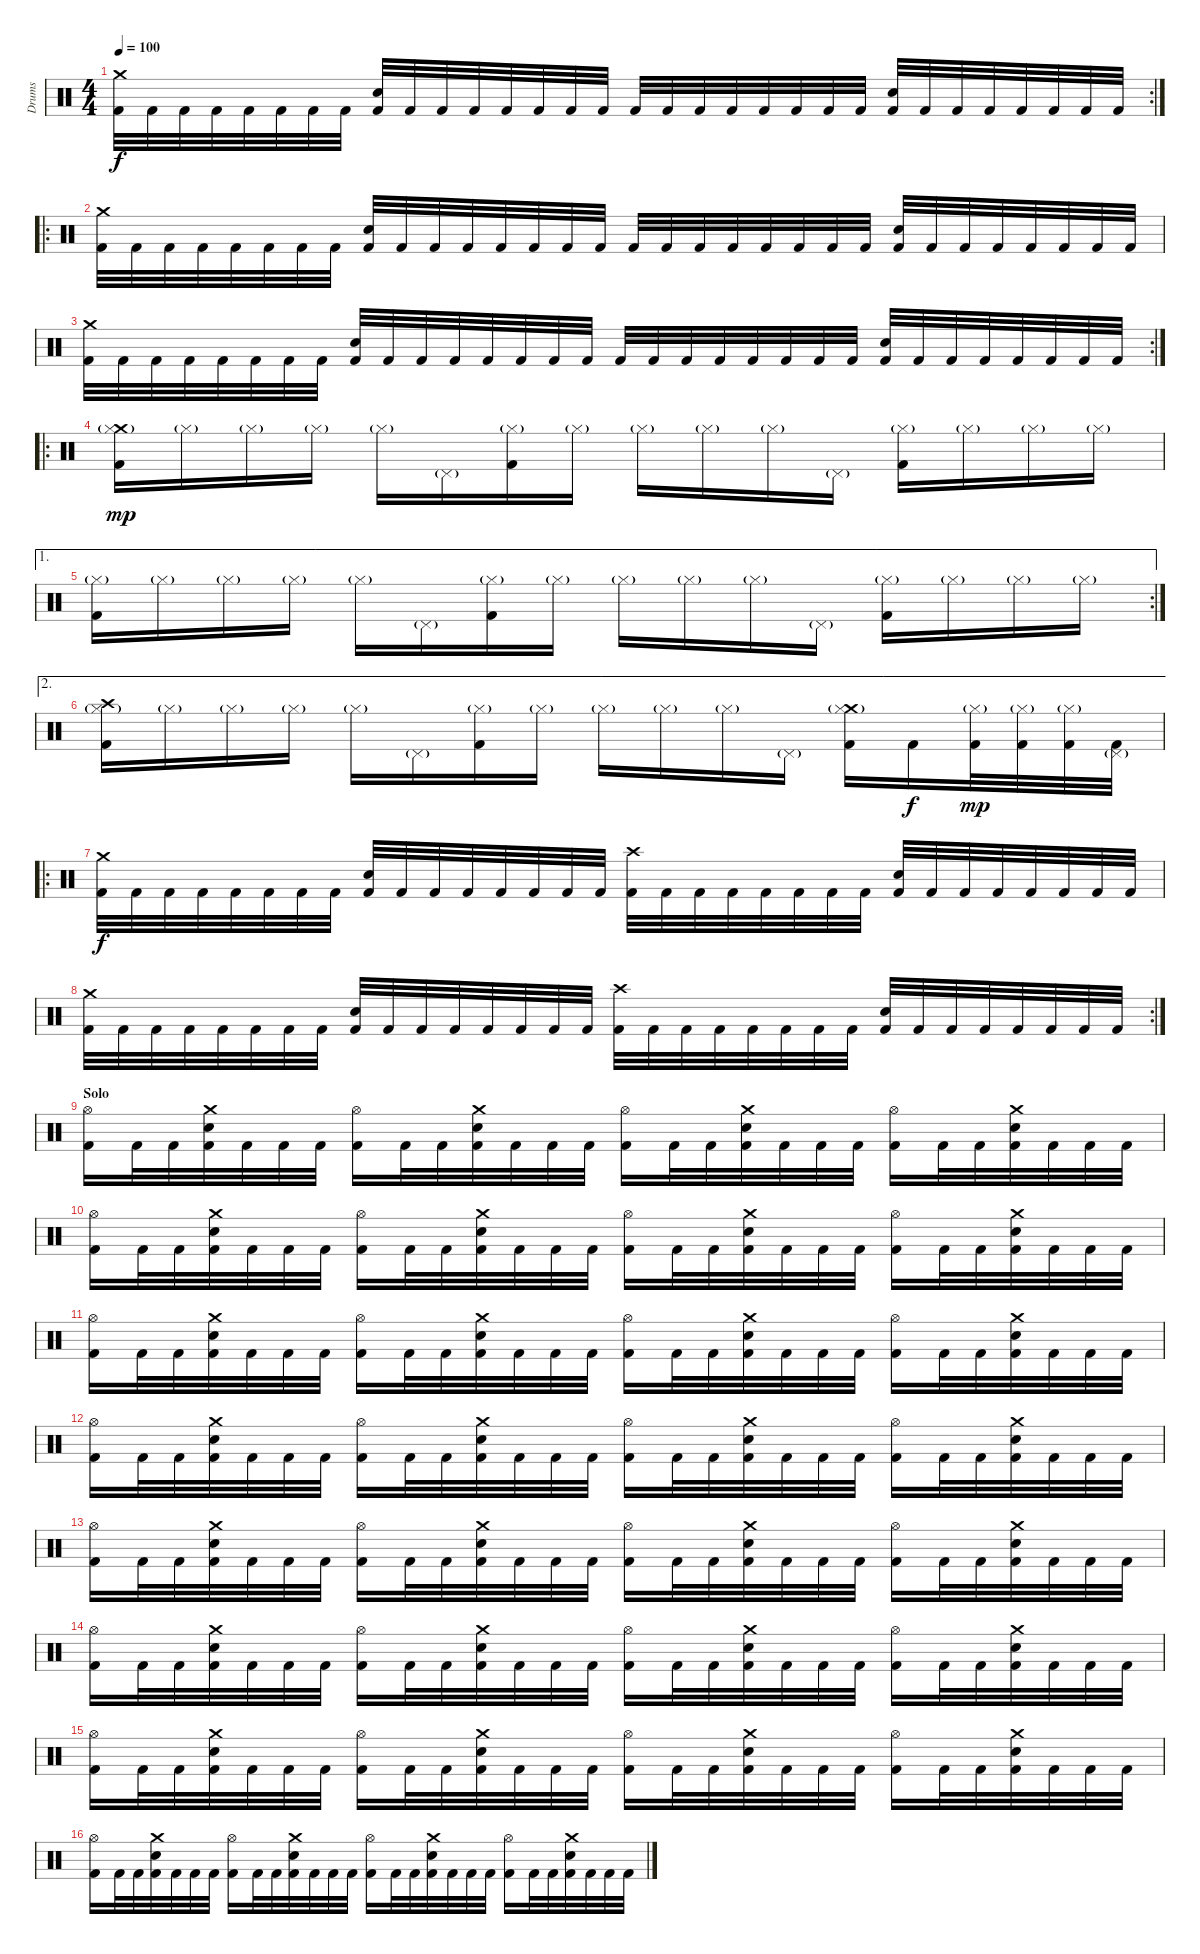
\track ("Drums" "Drums") {instrument percussion}
\staff {score}
\articulation defaults
\rc 2
\ts (4 4)
\tempo 100
\clef neutral
\ks c
("Crash medium (hit)" "Kick (hit) 2").32{dy f} "Kick (hit) 2".32 "Kick (hit) 2".32 "Kick (hit) 2".32 "Kick (hit) 2".32 "Kick (hit) 2".32 "Kick (hit) 2".32 "Kick (hit) 2".32 ("Snare (hit) 2" "Kick (hit) 2").32 "Kick (hit) 2".32 "Kick (hit) 2".32 "Kick (hit) 2".32 "Kick (hit) 2".32 "Kick (hit) 2".32 "Kick (hit) 2".32 "Kick (hit) 2".32 "Kick (hit) 2".32 "Kick (hit) 2".32 "Kick (hit) 2".32 "Kick (hit) 2".32 "Kick (hit) 2".32 "Kick (hit) 2".32 "Kick (hit) 2".32 "Kick (hit) 2".32 ("Snare (hit) 2" "Kick (hit) 2").32 "Kick (hit) 2".32 "Kick (hit) 2".32 "Kick (hit) 2".32 "Kick (hit) 2".32 "Kick (hit) 2".32 "Kick (hit) 2".32 "Kick (hit) 2".32 |
\ro
("Crash medium (hit)" "Kick (hit) 2").32 "Kick (hit) 2".32 "Kick (hit) 2".32 "Kick (hit) 2".32 "Kick (hit) 2".32 "Kick (hit) 2".32 "Kick (hit) 2".32 "Kick (hit) 2".32 ("Snare (hit) 2" "Kick (hit) 2").32 "Kick (hit) 2".32 "Kick (hit) 2".32 "Kick (hit) 2".32 "Kick (hit) 2".32 "Kick (hit) 2".32 "Kick (hit) 2".32 "Kick (hit) 2".32 "Kick (hit) 2".32 "Kick (hit) 2".32 "Kick (hit) 2".32 "Kick (hit) 2".32 "Kick (hit) 2".32 "Kick (hit) 2".32 "Kick (hit) 2".32 "Kick (hit) 2".32 ("Snare (hit) 2" "Kick (hit) 2").32 "Kick (hit) 2".32 "Kick (hit) 2".32 "Kick (hit) 2".32 "Kick (hit) 2".32 "Kick (hit) 2".32 "Kick (hit) 2".32 "Kick (hit) 2".32 |
\rc 2
("Crash medium (hit)" "Kick (hit) 2").32 "Kick (hit) 2".32 "Kick (hit) 2".32 "Kick (hit) 2".32 "Kick (hit) 2".32 "Kick (hit) 2".32 "Kick (hit) 2".32 "Kick (hit) 2".32 ("Snare (hit) 2" "Kick (hit) 2").32 "Kick (hit) 2".32 "Kick (hit) 2".32 "Kick (hit) 2".32 "Kick (hit) 2".32 "Kick (hit) 2".32 "Kick (hit) 2".32 "Kick (hit) 2".32 "Kick (hit) 2".32 "Kick (hit) 2".32 "Kick (hit) 2".32 "Kick (hit) 2".32 "Kick (hit) 2".32 "Kick (hit) 2".32 "Kick (hit) 2".32 "Kick (hit) 2".32 ("Snare (hit) 2" "Kick (hit) 2").32 "Kick (hit) 2".32 "Kick (hit) 2".32 "Kick (hit) 2".32 "Kick (hit) 2".32 "Kick (hit) 2".32 "Kick (hit) 2".32 "Kick (hit) 2".32 |
\ro
("Crash medium (hit)" "Hi-Hat (closed)"{g} "Kick (hit) 2").16{dy mp} "Hi-Hat (closed)"{g}.16 "Hi-Hat (closed)"{g}.16 "Hi-Hat (closed)"{g}.16 "Hi-Hat (closed)"{g}.16 "Pedal Hi-Hat (hit)"{g}.16 ("Hi-Hat (closed)"{g} "Kick (hit) 2").16 "Hi-Hat (closed)"{g}.16 "Hi-Hat (closed)"{g}.16 "Hi-Hat (closed)"{g}.16 "Hi-Hat (closed)"{g}.16 "Pedal Hi-Hat (hit)"{g}.16 ("Hi-Hat (closed)"{g} "Kick (hit) 2").16 "Hi-Hat (closed)"{g}.16 "Hi-Hat (closed)"{g}.16 "Hi-Hat (closed)"{g}.16 |
\ae 1
\rc 2
("Hi-Hat (closed)"{g} "Kick (hit) 2").16 "Hi-Hat (closed)"{g}.16 "Hi-Hat (closed)"{g}.16 "Hi-Hat (closed)"{g}.16 "Hi-Hat (closed)"{g}.16 "Pedal Hi-Hat (hit)"{g}.16 ("Hi-Hat (closed)"{g} "Kick (hit) 2").16 "Hi-Hat (closed)"{g}.16 "Hi-Hat (closed)"{g}.16 "Hi-Hat (closed)"{g}.16 "Hi-Hat (closed)"{g}.16 "Pedal Hi-Hat (hit)"{g}.16 ("Hi-Hat (closed)"{g} "Kick (hit) 2").16 "Hi-Hat (closed)"{g}.16 "Hi-Hat (closed)"{g}.16 "Hi-Hat (closed)"{g}.16 |
\ae 2
("Crash high (hit)" "Hi-Hat (closed)"{g} "Kick (hit) 2").16 "Hi-Hat (closed)"{g}.16 "Hi-Hat (closed)"{g}.16 "Hi-Hat (closed)"{g}.16 "Hi-Hat (closed)"{g}.16 "Pedal Hi-Hat (hit)"{g}.16 ("Hi-Hat (closed)"{g} "Kick (hit) 2").16 "Hi-Hat (closed)"{g}.16 "Hi-Hat (closed)"{g}.16 "Hi-Hat (closed)"{g}.16 "Hi-Hat (closed)"{g}.16 "Pedal Hi-Hat (hit)"{g}.16 ("Crash medium (hit)" "Hi-Hat (closed)"{g} "Kick (hit) 2").16 "Kick (hit) 2".16{dy f} ("Hi-Hat (closed)"{g} "Kick (hit) 2").32{dy mp} ("Hi-Hat (closed)"{g} "Kick (hit) 2").32 ("Hi-Hat (closed)"{g} "Kick (hit) 2").32 ("Pedal Hi-Hat (hit)"{g} "Kick (hit) 2").32 |
\ro
("Crash medium (hit)" "Kick (hit) 2").32{dy f} "Kick (hit) 2".32 "Kick (hit) 2".32 "Kick (hit) 2".32 "Kick (hit) 2".32 "Kick (hit) 2".32 "Kick (hit) 2".32 "Kick (hit) 2".32 ("Snare (hit) 2" "Kick (hit) 2").32 "Kick (hit) 2".32 "Kick (hit) 2".32 "Kick (hit) 2".32 "Kick (hit) 2".32 "Kick (hit) 2".32 "Kick (hit) 2".32 "Kick (hit) 2".32 ("Crash high (hit)" "Kick (hit) 2").32 "Kick (hit) 2".32 "Kick (hit) 2".32 "Kick (hit) 2".32 "Kick (hit) 2".32 "Kick (hit) 2".32 "Kick (hit) 2".32 "Kick (hit) 2".32 ("Snare (hit) 2" "Kick (hit) 2").32 "Kick (hit) 2".32 "Kick (hit) 2".32 "Kick (hit) 2".32 "Kick (hit) 2".32 "Kick (hit) 2".32 "Kick (hit) 2".32 "Kick (hit) 2".32 |
\rc 2
("Crash medium (hit)" "Kick (hit) 2").32 "Kick (hit) 2".32 "Kick (hit) 2".32 "Kick (hit) 2".32 "Kick (hit) 2".32 "Kick (hit) 2".32 "Kick (hit) 2".32 "Kick (hit) 2".32 ("Snare (hit) 2" "Kick (hit) 2").32 "Kick (hit) 2".32 "Kick (hit) 2".32 "Kick (hit) 2".32 "Kick (hit) 2".32 "Kick (hit) 2".32 "Kick (hit) 2".32 "Kick (hit) 2".32 ("Crash high (hit)" "Kick (hit) 2").32 "Kick (hit) 2".32 "Kick (hit) 2".32 "Kick (hit) 2".32 "Kick (hit) 2".32 "Kick (hit) 2".32 "Kick (hit) 2".32 "Kick (hit) 2".32 ("Snare (hit) 2" "Kick (hit) 2").32 "Kick (hit) 2".32 "Kick (hit) 2".32 "Kick (hit) 2".32 "Kick (hit) 2".32 "Kick (hit) 2".32 "Kick (hit) 2".32 "Kick (hit) 2".32 |
\section ("" "Solo")
("Hi-Hat (open)" "Kick (hit) 2").16 "Kick (hit) 2".32 "Kick (hit) 2".32 ("Crash medium (hit)" "Snare (hit) 2" "Kick (hit) 2").32 "Kick (hit) 2".32 "Kick (hit) 2".32 "Kick (hit) 2".32 ("Hi-Hat (open)" "Kick (hit) 2").16 "Kick (hit) 2".32 "Kick (hit) 2".32 ("Crash medium (hit)" "Snare (hit) 2" "Kick (hit) 2").32 "Kick (hit) 2".32 "Kick (hit) 2".32 "Kick (hit) 2".32 ("Hi-Hat (open)" "Kick (hit) 2").16 "Kick (hit) 2".32 "Kick (hit) 2".32 ("Crash medium (hit)" "Snare (hit) 2" "Kick (hit) 2").32 "Kick (hit) 2".32 "Kick (hit) 2".32 "Kick (hit) 2".32 ("Hi-Hat (open)" "Kick (hit) 2").16 "Kick (hit) 2".32 "Kick (hit) 2".32 ("Crash medium (hit)" "Snare (hit) 2" "Kick (hit) 2").32 "Kick (hit) 2".32 "Kick (hit) 2".32 "Kick (hit) 2".32 |
("Hi-Hat (open)" "Kick (hit) 2").16 "Kick (hit) 2".32 "Kick (hit) 2".32 ("Crash medium (hit)" "Snare (hit) 2" "Kick (hit) 2").32 "Kick (hit) 2".32 "Kick (hit) 2".32 "Kick (hit) 2".32 ("Hi-Hat (open)" "Kick (hit) 2").16 "Kick (hit) 2".32 "Kick (hit) 2".32 ("Crash medium (hit)" "Snare (hit) 2" "Kick (hit) 2").32 "Kick (hit) 2".32 "Kick (hit) 2".32 "Kick (hit) 2".32 ("Hi-Hat (open)" "Kick (hit) 2").16 "Kick (hit) 2".32 "Kick (hit) 2".32 ("Crash medium (hit)" "Snare (hit) 2" "Kick (hit) 2").32 "Kick (hit) 2".32 "Kick (hit) 2".32 "Kick (hit) 2".32 ("Hi-Hat (open)" "Kick (hit) 2").16 "Kick (hit) 2".32 "Kick (hit) 2".32 ("Crash medium (hit)" "Snare (hit) 2" "Kick (hit) 2").32 "Kick (hit) 2".32 "Kick (hit) 2".32 "Kick (hit) 2".32 |
("Hi-Hat (open)" "Kick (hit) 2").16 "Kick (hit) 2".32 "Kick (hit) 2".32 ("Crash medium (hit)" "Snare (hit) 2" "Kick (hit) 2").32 "Kick (hit) 2".32 "Kick (hit) 2".32 "Kick (hit) 2".32 ("Hi-Hat (open)" "Kick (hit) 2").16 "Kick (hit) 2".32 "Kick (hit) 2".32 ("Crash medium (hit)" "Snare (hit) 2" "Kick (hit) 2").32 "Kick (hit) 2".32 "Kick (hit) 2".32 "Kick (hit) 2".32 ("Hi-Hat (open)" "Kick (hit) 2").16 "Kick (hit) 2".32 "Kick (hit) 2".32 ("Crash medium (hit)" "Snare (hit) 2" "Kick (hit) 2").32 "Kick (hit) 2".32 "Kick (hit) 2".32 "Kick (hit) 2".32 ("Hi-Hat (open)" "Kick (hit) 2").16 "Kick (hit) 2".32 "Kick (hit) 2".32 ("Crash medium (hit)" "Snare (hit) 2" "Kick (hit) 2").32 "Kick (hit) 2".32 "Kick (hit) 2".32 "Kick (hit) 2".32 |
("Hi-Hat (open)" "Kick (hit) 2").16 "Kick (hit) 2".32 "Kick (hit) 2".32 ("Crash medium (hit)" "Snare (hit) 2" "Kick (hit) 2").32 "Kick (hit) 2".32 "Kick (hit) 2".32 "Kick (hit) 2".32 ("Hi-Hat (open)" "Kick (hit) 2").16 "Kick (hit) 2".32 "Kick (hit) 2".32 ("Crash medium (hit)" "Snare (hit) 2" "Kick (hit) 2").32 "Kick (hit) 2".32 "Kick (hit) 2".32 "Kick (hit) 2".32 ("Hi-Hat (open)" "Kick (hit) 2").16 "Kick (hit) 2".32 "Kick (hit) 2".32 ("Crash medium (hit)" "Snare (hit) 2" "Kick (hit) 2").32 "Kick (hit) 2".32 "Kick (hit) 2".32 "Kick (hit) 2".32 ("Hi-Hat (open)" "Kick (hit) 2").16 "Kick (hit) 2".32 "Kick (hit) 2".32 ("Crash medium (hit)" "Snare (hit) 2" "Kick (hit) 2").32 "Kick (hit) 2".32 "Kick (hit) 2".32 "Kick (hit) 2".32 |
("Hi-Hat (open)" "Kick (hit) 2").16 "Kick (hit) 2".32 "Kick (hit) 2".32 ("Crash medium (hit)" "Snare (hit) 2" "Kick (hit) 2").32 "Kick (hit) 2".32 "Kick (hit) 2".32 "Kick (hit) 2".32 ("Hi-Hat (open)" "Kick (hit) 2").16 "Kick (hit) 2".32 "Kick (hit) 2".32 ("Crash medium (hit)" "Snare (hit) 2" "Kick (hit) 2").32 "Kick (hit) 2".32 "Kick (hit) 2".32 "Kick (hit) 2".32 ("Hi-Hat (open)" "Kick (hit) 2").16 "Kick (hit) 2".32 "Kick (hit) 2".32 ("Crash medium (hit)" "Snare (hit) 2" "Kick (hit) 2").32 "Kick (hit) 2".32 "Kick (hit) 2".32 "Kick (hit) 2".32 ("Hi-Hat (open)" "Kick (hit) 2").16 "Kick (hit) 2".32 "Kick (hit) 2".32 ("Crash medium (hit)" "Snare (hit) 2" "Kick (hit) 2").32 "Kick (hit) 2".32 "Kick (hit) 2".32 "Kick (hit) 2".32 |
("Hi-Hat (open)" "Kick (hit) 2").16 "Kick (hit) 2".32 "Kick (hit) 2".32 ("Crash medium (hit)" "Snare (hit) 2" "Kick (hit) 2").32 "Kick (hit) 2".32 "Kick (hit) 2".32 "Kick (hit) 2".32 ("Hi-Hat (open)" "Kick (hit) 2").16 "Kick (hit) 2".32 "Kick (hit) 2".32 ("Crash medium (hit)" "Snare (hit) 2" "Kick (hit) 2").32 "Kick (hit) 2".32 "Kick (hit) 2".32 "Kick (hit) 2".32 ("Hi-Hat (open)" "Kick (hit) 2").16 "Kick (hit) 2".32 "Kick (hit) 2".32 ("Crash medium (hit)" "Snare (hit) 2" "Kick (hit) 2").32 "Kick (hit) 2".32 "Kick (hit) 2".32 "Kick (hit) 2".32 ("Hi-Hat (open)" "Kick (hit) 2").16 "Kick (hit) 2".32 "Kick (hit) 2".32 ("Crash medium (hit)" "Snare (hit) 2" "Kick (hit) 2").32 "Kick (hit) 2".32 "Kick (hit) 2".32 "Kick (hit) 2".32 |
("Hi-Hat (open)" "Kick (hit) 2").16 "Kick (hit) 2".32 "Kick (hit) 2".32 ("Crash medium (hit)" "Snare (hit) 2" "Kick (hit) 2").32 "Kick (hit) 2".32 "Kick (hit) 2".32 "Kick (hit) 2".32 ("Hi-Hat (open)" "Kick (hit) 2").16 "Kick (hit) 2".32 "Kick (hit) 2".32 ("Crash medium (hit)" "Snare (hit) 2" "Kick (hit) 2").32 "Kick (hit) 2".32 "Kick (hit) 2".32 "Kick (hit) 2".32 ("Hi-Hat (open)" "Kick (hit) 2").16 "Kick (hit) 2".32 "Kick (hit) 2".32 ("Crash medium (hit)" "Snare (hit) 2" "Kick (hit) 2").32 "Kick (hit) 2".32 "Kick (hit) 2".32 "Kick (hit) 2".32 ("Hi-Hat (open)" "Kick (hit) 2").16 "Kick (hit) 2".32 "Kick (hit) 2".32 ("Crash medium (hit)" "Snare (hit) 2" "Kick (hit) 2").32 "Kick (hit) 2".32 "Kick (hit) 2".32 "Kick (hit) 2".32 |
("Hi-Hat (open)" "Kick (hit) 2").16 "Kick (hit) 2".32 "Kick (hit) 2".32 ("Crash medium (hit)" "Snare (hit) 2" "Kick (hit) 2").32 "Kick (hit) 2".32 "Kick (hit) 2".32 "Kick (hit) 2".32 ("Hi-Hat (open)" "Kick (hit) 2").16 "Kick (hit) 2".32 "Kick (hit) 2".32 ("Crash medium (hit)" "Snare (hit) 2" "Kick (hit) 2").32 "Kick (hit) 2".32 "Kick (hit) 2".32 "Kick (hit) 2".32 ("Hi-Hat (open)" "Kick (hit) 2").16 "Kick (hit) 2".32 "Kick (hit) 2".32 ("Crash medium (hit)" "Snare (hit) 2" "Kick (hit) 2").32 "Kick (hit) 2".32 "Kick (hit) 2".32 "Kick (hit) 2".32 ("Hi-Hat (open)" "Kick (hit) 2").16 "Kick (hit) 2".32 "Kick (hit) 2".32 ("Crash medium (hit)" "Snare (hit) 2" "Kick (hit) 2").32 "Kick (hit) 2".32 "Kick (hit) 2".32 "Kick (hit) 2".32
